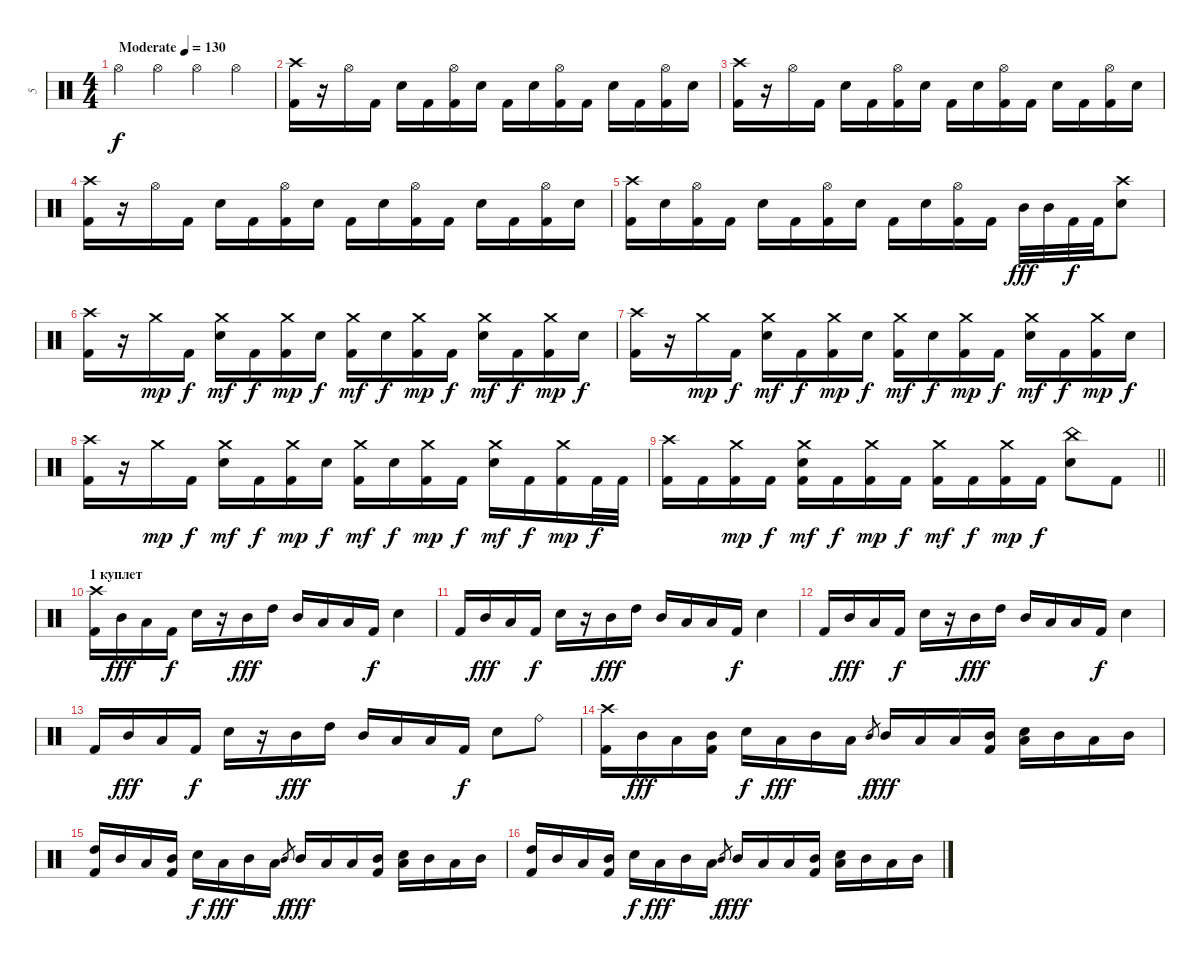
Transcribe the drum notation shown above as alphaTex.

\track ("5" "5") {instrument percussion}
\staff {score}
\articulation defaults
\ts (4 4)
\tempo (130 "Moderate")
\clef neutral
\ks c "Hi-Hat (open)".4{dy f} "Hi-Hat (open)".4 "Hi-Hat (open)".4 "Hi-Hat (open)".4
|
("Crash high (hit)" "Kick (hit) 2").16 r.16 "Hi-Hat (open)".16 "Kick (hit) 2".16 "Electric Snare (hit)".16 "Kick (hit) 2".16 ("Hi-Hat (open)" "Kick (hit) 2").16 "Electric Snare (hit)".16 "Kick (hit) 2".16 "Electric Snare (hit)".16 ("Hi-Hat (open)" "Kick (hit) 2").16 "Kick (hit) 2".16 "Electric Snare (hit)".16 "Kick (hit) 2".16 ("Hi-Hat (open)" "Kick (hit) 2").16 "Electric Snare (hit)".16 |
("Crash high (hit)" "Kick (hit) 2").16 r.16 "Hi-Hat (open)".16 "Kick (hit) 2".16 "Electric Snare (hit)".16 "Kick (hit) 2".16 ("Hi-Hat (open)" "Kick (hit) 2").16 "Electric Snare (hit)".16 "Kick (hit) 2".16 "Electric Snare (hit)".16 ("Hi-Hat (open)" "Kick (hit) 2").16 "Kick (hit) 2".16 "Electric Snare (hit)".16 "Kick (hit) 2".16 ("Hi-Hat (open)" "Kick (hit) 2").16 "Electric Snare (hit)".16 |
("Crash high (hit)" "Kick (hit) 2").16 r.16 "Hi-Hat (open)".16 "Kick (hit) 2".16 "Electric Snare (hit)".16 "Kick (hit) 2".16 ("Hi-Hat (open)" "Kick (hit) 2").16 "Electric Snare (hit)".16 "Kick (hit) 2".16 "Electric Snare (hit)".16 ("Hi-Hat (open)" "Kick (hit) 2").16 "Kick (hit) 2".16 "Electric Snare (hit)".16 "Kick (hit) 2".16 ("Hi-Hat (open)" "Kick (hit) 2").16 "Electric Snare (hit)".16 |
("Crash high (hit)" "Kick (hit) 2").16 "Electric Snare (hit)".16 ("Hi-Hat (open)" "Kick (hit) 2").16 "Kick (hit) 2".16 "Electric Snare (hit)".16 "Kick (hit) 2".16 ("Hi-Hat (open)" "Kick (hit) 2").16 "Electric Snare (hit)".16 "Kick (hit) 2".16 "Electric Snare (hit)".16 ("Hi-Hat (open)" "Kick (hit) 2").16 "Kick (hit) 2".16 "Mid Tom (hit)".32{dy fff} "Mid Tom (hit)".32 "Kick (hit) 2".32{dy f} "Kick (hit) 2".32 ("Crash high (hit)" "Electric Snare (hit)").8 |
("Crash high (hit)" "Kick (hit) 2").16 r.16 "Crash medium (hit)".16{dy mp} "Kick (hit) 2".16{dy f} ("Crash medium (hit)" "Electric Snare (hit)").16{dy mf} "Kick (hit) 2".16{dy f} ("Crash medium (hit)" "Kick (hit) 2").16{dy mp} "Electric Snare (hit)".16{dy f} ("Crash medium (hit)" "Kick (hit) 2").16{dy mf} "Electric Snare (hit)".16{dy f} ("Crash medium (hit)" "Kick (hit) 2").16{dy mp} "Kick (hit) 2".16{dy f} ("Crash medium (hit)" "Electric Snare (hit)").16{dy mf} "Kick (hit) 2".16{dy f} ("Crash medium (hit)" "Kick (hit) 2").16{dy mp} "Electric Snare (hit)".16{dy f} |
("Crash high (hit)" "Kick (hit) 2").16 r.16 "Crash medium (hit)".16{dy mp} "Kick (hit) 2".16{dy f} ("Crash medium (hit)" "Electric Snare (hit)").16{dy mf} "Kick (hit) 2".16{dy f} ("Crash medium (hit)" "Kick (hit) 2").16{dy mp} "Electric Snare (hit)".16{dy f} ("Crash medium (hit)" "Kick (hit) 2").16{dy mf} "Electric Snare (hit)".16{dy f} ("Crash medium (hit)" "Kick (hit) 2").16{dy mp} "Kick (hit) 2".16{dy f} ("Crash medium (hit)" "Electric Snare (hit)").16{dy mf} "Kick (hit) 2".16{dy f} ("Crash medium (hit)" "Kick (hit) 2").16{dy mp} "Electric Snare (hit)".16{dy f} |
("Crash high (hit)" "Kick (hit) 2").16 r.16 "Crash medium (hit)".16{dy mp} "Kick (hit) 2".16{dy f} ("Crash medium (hit)" "Electric Snare (hit)").16{dy mf} "Kick (hit) 2".16{dy f} ("Crash medium (hit)" "Kick (hit) 2").16{dy mp} "Electric Snare (hit)".16{dy f} ("Crash medium (hit)" "Kick (hit) 2").16{dy mf} "Electric Snare (hit)".16{dy f} ("Crash medium (hit)" "Kick (hit) 2").16{dy mp} "Kick (hit) 2".16{dy f} ("Crash medium (hit)" "Electric Snare (hit)").16{dy mf} "Kick (hit) 2".16{dy f} ("Crash medium (hit)" "Kick (hit) 2").16{dy mp} "Kick (hit) 2".32{dy f} "Kick (hit) 2".32 |
\barLineRight lightlight
("Crash high (hit)" "Kick (hit) 2").16 "Kick (hit) 2".16 ("Crash medium (hit)" "Kick (hit) 2").16{dy mp} "Kick (hit) 2".16{dy f} ("Crash medium (hit)" "Electric Snare (hit)" "Kick (hit) 2").16{dy mf} "Kick (hit) 2".16{dy f} ("Crash medium (hit)" "Kick (hit) 2").16{dy mp} "Kick (hit) 2".16{dy f} ("Crash medium (hit)" "Kick (hit) 2").16{dy mf} "Kick (hit) 2".16{dy f} ("Crash medium (hit)" "Kick (hit) 2").16{dy mp} "Kick (hit) 2".16{dy f} ("China (hit)" "Electric Snare (hit)").8 "Kick (hit) 2".8 |
\section ("" "1 куплет")
("Crash high (hit)" "Kick (hit) 2").16 "Mid Tom (hit)".16{dy fff} "Low Tom (hit)".16 "Kick (hit) 2".16{dy f} "Electric Snare (hit)".16 r.16 "Mid Tom (hit)".16{dy fff} "High Tom (hit)".16 "Mid Tom (hit)".16 "Low Tom (hit)".16 "Low Tom (hit)".16 "Kick (hit) 2".16{dy f} "Electric Snare (hit)".4 |
"Kick (hit) 2".16 "Mid Tom (hit)".16{dy fff} "Low Tom (hit)".16 "Kick (hit) 2".16{dy f} "Electric Snare (hit)".16 r.16 "Mid Tom (hit)".16{dy fff} "High Tom (hit)".16 "Mid Tom (hit)".16 "Low Tom (hit)".16 "Low Tom (hit)".16 "Kick (hit) 2".16{dy f} "Electric Snare (hit)".4 |
"Kick (hit) 2".16 "Mid Tom (hit)".16{dy fff} "Low Tom (hit)".16 "Kick (hit) 2".16{dy f} "Electric Snare (hit)".16 r.16 "Mid Tom (hit)".16{dy fff} "High Tom (hit)".16 "Mid Tom (hit)".16 "Low Tom (hit)".16 "Low Tom (hit)".16 "Kick (hit) 2".16{dy f} "Electric Snare (hit)".4 |
"Kick (hit) 2".16 "Mid Tom (hit)".16{dy fff} "Low Tom (hit)".16 "Kick (hit) 2".16{dy f} "Electric Snare (hit)".16 r.16 "Mid Tom (hit)".16{dy fff} "High Tom (hit)".16 "Mid Tom (hit)".16 "Low Tom (hit)".16 "Low Tom (hit)".16 "Kick (hit) 2".16{dy f} "Electric Snare (hit)".8 "Ride (bell)".8 |
("Crash high (hit)" "Kick (hit) 2").16 "Mid Tom (hit)".16{dy fff} "Low Tom (hit)".16 ("Mid Tom (hit)" "Kick (hit) 2").16 "Electric Snare (hit)".16{dy f} "Low Tom (hit)".16{dy fff} "Mid Tom (hit)".16 "Low Tom (hit)".16 "Mid Tom (hit)".8{gr dy f} "Mid Tom (hit)".16{dy fff} "Low Tom (hit)".16 "Low Tom (hit)".16 ("Mid Tom (hit)" "Kick (hit) 2").16 ("Low Tom (hit)" "Electric Snare (hit)").16 "Mid Tom (hit)".16 "Low Tom (hit)".16 "Mid Tom (hit)".16 |
("High Tom (hit)" "Kick (hit) 2").16 "Mid Tom (hit)".16 "Low Tom (hit)".16 ("Mid Tom (hit)" "Kick (hit) 2").16 "Electric Snare (hit)".16{dy f} "Low Tom (hit)".16{dy fff} "Mid Tom (hit)".16 "Low Tom (hit)".16 "Mid Tom (hit)".8{gr dy f} "Mid Tom (hit)".16{dy fff} "Low Tom (hit)".16 "Low Tom (hit)".16 ("Mid Tom (hit)" "Kick (hit) 2").16 ("Low Tom (hit)" "Electric Snare (hit)").16 "Mid Tom (hit)".16 "Low Tom (hit)".16 "Mid Tom (hit)".16 |
("High Tom (hit)" "Kick (hit) 2").16 "Mid Tom (hit)".16 "Low Tom (hit)".16 ("Mid Tom (hit)" "Kick (hit) 2").16 "Electric Snare (hit)".16{dy f} "Low Tom (hit)".16{dy fff} "Mid Tom (hit)".16 "Low Tom (hit)".16 "Mid Tom (hit)".8{gr dy f} "Mid Tom (hit)".16{dy fff} "Low Tom (hit)".16 "Low Tom (hit)".16 ("Mid Tom (hit)" "Kick (hit) 2").16 ("Low Tom (hit)" "Electric Snare (hit)").16 "Mid Tom (hit)".16 "Low Tom (hit)".16 "Mid Tom (hit)".16
